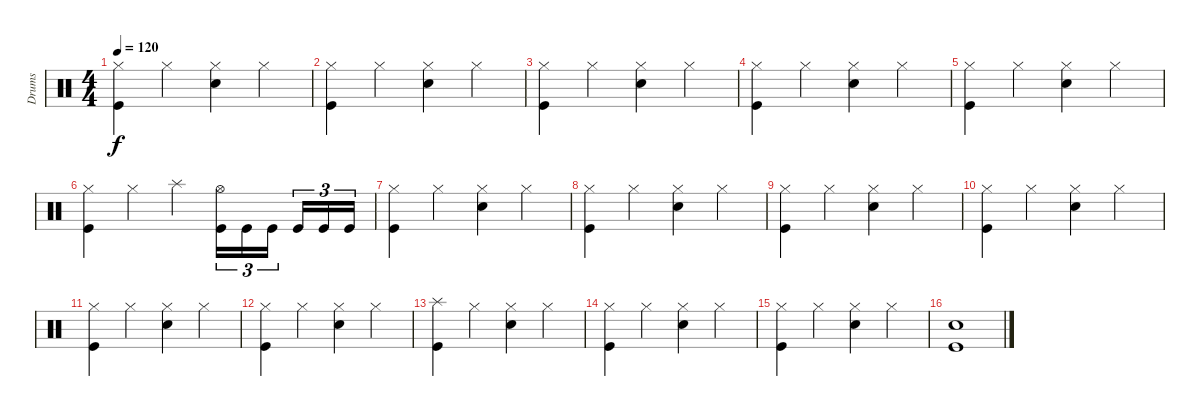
\track ("Drums" "Drums") {instrument percussion}
\staff {score}
\articulation defaults
\ts (4 4)
\tempo 120
\clef neutral
\ks c
("Hi-Hat (closed)" "Kick (hit)").4{dy f} "Hi-Hat (closed)".4 ("Hi-Hat (closed)" "Snare (hit) 2").4 "Hi-Hat (closed)".4 |
("Hi-Hat (closed)" "Kick (hit)").4 "Hi-Hat (closed)".4 ("Hi-Hat (closed)" "Snare (hit) 2").4 "Hi-Hat (closed)".4 |
("Hi-Hat (closed)" "Kick (hit)").4 "Hi-Hat (closed)".4 ("Hi-Hat (closed)" "Snare (hit) 2").4 "Hi-Hat (closed)".4 |
("Hi-Hat (closed)" "Kick (hit)").4 "Hi-Hat (closed)".4 ("Hi-Hat (closed)" "Snare (hit) 2").4 "Hi-Hat (closed)".4 |
("Hi-Hat (closed)" "Kick (hit)").4 "Hi-Hat (closed)".4 ("Hi-Hat (closed)" "Snare (hit) 2").4 "Hi-Hat (closed)".4 |
("Hi-Hat (closed)" "Kick (hit)").4 "Hi-Hat (closed)".4 "Splash (hit)".4 ("Hi-Hat (open)" "Kick (hit)").16{tu (3 2)} "Kick (hit)".16{tu (3 2)} "Kick (hit)".16{tu (3 2)} "Kick (hit)".16{tu (3 2)} "Kick (hit)".16{tu (3 2)} "Kick (hit)".16{tu (3 2)} |
("Hi-Hat (closed)" "Kick (hit)").4 "Hi-Hat (closed)".4 ("Hi-Hat (closed)" "Snare (hit) 2").4 "Hi-Hat (closed)".4 |
("Hi-Hat (closed)" "Kick (hit)").4 "Hi-Hat (closed)".4 ("Hi-Hat (closed)" "Snare (hit) 2").4 "Hi-Hat (closed)".4 |
("Hi-Hat (closed)" "Kick (hit)").4 "Hi-Hat (closed)".4 ("Hi-Hat (closed)" "Snare (hit) 2").4 "Hi-Hat (closed)".4 |
("Hi-Hat (closed)" "Kick (hit)").4 "Hi-Hat (closed)".4 ("Hi-Hat (closed)" "Snare (hit) 2").4 "Hi-Hat (closed)".4 |
("Hi-Hat (closed)" "Kick (hit)").4 "Hi-Hat (closed)".4 ("Hi-Hat (closed)" "Snare (hit) 2").4 "Hi-Hat (closed)".4 |
("Hi-Hat (closed)" "Kick (hit)").4 "Hi-Hat (closed)".4 ("Hi-Hat (closed)" "Snare (hit) 2").4 "Hi-Hat (closed)".4 |
("Splash (hit)" "Kick (hit)").4 "Hi-Hat (closed)".4 ("Hi-Hat (closed)" "Snare (hit) 2").4 "Hi-Hat (closed)".4 |
("Hi-Hat (closed)" "Kick (hit)").4 "Hi-Hat (closed)".4 ("Hi-Hat (closed)" "Snare (hit) 2").4 "Hi-Hat (closed)".4 |
("Hi-Hat (closed)" "Kick (hit)").4 "Hi-Hat (closed)".4 ("Hi-Hat (closed)" "Snare (hit) 2").4 "Hi-Hat (closed)".4 |
("Snare (hit) 2" "Kick (hit)").1
